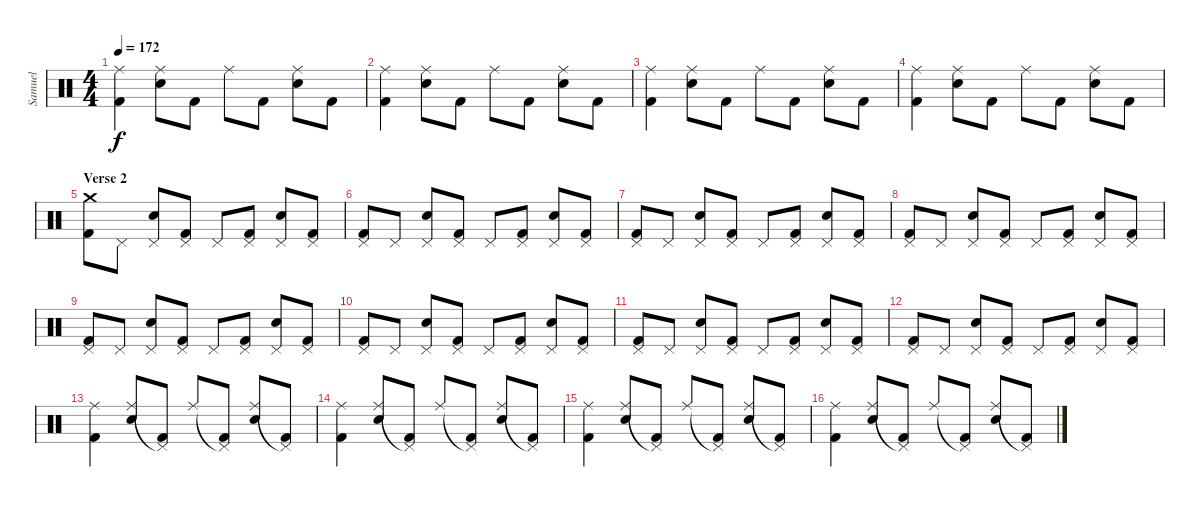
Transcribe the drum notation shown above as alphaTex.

\track ("Samuel" "Samuel") {instrument percussion}
\staff {score}
\articulation defaults
\ts (4 4)
\tempo 172
\clef neutral
\ks c
("Ride (middle)" "Kick (hit) 2").4{dy f} ("Ride (middle)" "Snare (hit) 2").8 "Kick (hit) 2".8 "Ride (middle)".8 "Kick (hit) 2".8 ("Ride (middle)" "Snare (hit) 2").8 "Kick (hit) 2".8 |
("Ride (middle)" "Kick (hit) 2").4 ("Ride (middle)" "Snare (hit) 2").8 "Kick (hit) 2".8 "Ride (middle)".8 "Kick (hit) 2".8 ("Ride (middle)" "Snare (hit) 2").8 "Kick (hit) 2".8 |
("Ride (middle)" "Kick (hit) 2").4 ("Ride (middle)" "Snare (hit) 2").8 "Kick (hit) 2".8 "Ride (middle)".8 "Kick (hit) 2".8 ("Ride (middle)" "Snare (hit) 2").8 "Kick (hit) 2".8 |
("Ride (middle)" "Kick (hit) 2").4 ("Ride (middle)" "Snare (hit) 2").8 "Kick (hit) 2".8 "Ride (middle)".8 "Kick (hit) 2".8 ("Ride (middle)" "Snare (hit) 2").8 "Kick (hit) 2".8 |
\section ("" "Verse 2")
("Crash medium (hit)" "Kick (hit) 2").8 "Pedal Hi-Hat (hit)".8 ("Pedal Hi-Hat (hit)" "Snare (hit) 2").8 ("Pedal Hi-Hat (hit)" "Kick (hit) 2").8 "Pedal Hi-Hat (hit)".8 ("Pedal Hi-Hat (hit)" "Kick (hit) 2").8 ("Pedal Hi-Hat (hit)" "Snare (hit) 2").8 ("Pedal Hi-Hat (hit)" "Kick (hit) 2").8 |
("Pedal Hi-Hat (hit)" "Kick (hit) 2").8 "Pedal Hi-Hat (hit)".8 ("Pedal Hi-Hat (hit)" "Snare (hit) 2").8 ("Pedal Hi-Hat (hit)" "Kick (hit) 2").8 "Pedal Hi-Hat (hit)".8 ("Pedal Hi-Hat (hit)" "Kick (hit) 2").8 ("Pedal Hi-Hat (hit)" "Snare (hit) 2").8 ("Pedal Hi-Hat (hit)" "Kick (hit) 2").8 |
("Pedal Hi-Hat (hit)" "Kick (hit) 2").8 "Pedal Hi-Hat (hit)".8 ("Pedal Hi-Hat (hit)" "Snare (hit) 2").8 ("Pedal Hi-Hat (hit)" "Kick (hit) 2").8 "Pedal Hi-Hat (hit)".8 ("Pedal Hi-Hat (hit)" "Kick (hit) 2").8 ("Pedal Hi-Hat (hit)" "Snare (hit) 2").8 ("Pedal Hi-Hat (hit)" "Kick (hit) 2").8 |
("Pedal Hi-Hat (hit)" "Kick (hit) 2").8 "Pedal Hi-Hat (hit)".8 ("Pedal Hi-Hat (hit)" "Snare (hit) 2").8 ("Pedal Hi-Hat (hit)" "Kick (hit) 2").8 "Pedal Hi-Hat (hit)".8 ("Pedal Hi-Hat (hit)" "Kick (hit) 2").8 ("Pedal Hi-Hat (hit)" "Snare (hit) 2").8 ("Pedal Hi-Hat (hit)" "Kick (hit) 2").8 |
("Pedal Hi-Hat (hit)" "Kick (hit) 2").8 "Pedal Hi-Hat (hit)".8 ("Pedal Hi-Hat (hit)" "Snare (hit) 2").8 ("Pedal Hi-Hat (hit)" "Kick (hit) 2").8 "Pedal Hi-Hat (hit)".8 ("Pedal Hi-Hat (hit)" "Kick (hit) 2").8 ("Pedal Hi-Hat (hit)" "Snare (hit) 2").8 ("Pedal Hi-Hat (hit)" "Kick (hit) 2").8 |
("Pedal Hi-Hat (hit)" "Kick (hit) 2").8 "Pedal Hi-Hat (hit)".8 ("Pedal Hi-Hat (hit)" "Snare (hit) 2").8 ("Pedal Hi-Hat (hit)" "Kick (hit) 2").8 "Pedal Hi-Hat (hit)".8 ("Pedal Hi-Hat (hit)" "Kick (hit) 2").8 ("Pedal Hi-Hat (hit)" "Snare (hit) 2").8 ("Pedal Hi-Hat (hit)" "Kick (hit) 2").8 |
("Pedal Hi-Hat (hit)" "Kick (hit) 2").8 "Pedal Hi-Hat (hit)".8 ("Pedal Hi-Hat (hit)" "Snare (hit) 2").8 ("Pedal Hi-Hat (hit)" "Kick (hit) 2").8 "Pedal Hi-Hat (hit)".8 ("Pedal Hi-Hat (hit)" "Kick (hit) 2").8 ("Pedal Hi-Hat (hit)" "Snare (hit) 2").8 ("Pedal Hi-Hat (hit)" "Kick (hit) 2").8 |
("Pedal Hi-Hat (hit)" "Kick (hit) 2").8 "Pedal Hi-Hat (hit)".8 ("Pedal Hi-Hat (hit)" "Snare (hit) 2").8 ("Pedal Hi-Hat (hit)" "Kick (hit) 2").8 "Pedal Hi-Hat (hit)".8 ("Pedal Hi-Hat (hit)" "Kick (hit) 2").8 ("Pedal Hi-Hat (hit)" "Snare (hit) 2").8 ("Pedal Hi-Hat (hit)" "Kick (hit) 2").8 |
("Ride (middle)" "Kick (hit) 2").4 ("Ride (middle)" "Snare (hit) 2").8 ("Pedal Hi-Hat (hit)"{t} "Kick (hit) 2").8 "Ride (middle)".8 ("Pedal Hi-Hat (hit)"{t} "Kick (hit) 2").8 ("Ride (middle)" "Snare (hit) 2").8 ("Pedal Hi-Hat (hit)"{t} "Kick (hit) 2").8 |
("Ride (middle)" "Kick (hit) 2").4 ("Ride (middle)" "Snare (hit) 2").8 ("Pedal Hi-Hat (hit)"{t} "Kick (hit) 2").8 "Ride (middle)".8 ("Pedal Hi-Hat (hit)"{t} "Kick (hit) 2").8 ("Ride (middle)" "Snare (hit) 2").8 ("Pedal Hi-Hat (hit)"{t} "Kick (hit) 2").8 |
("Ride (middle)" "Kick (hit) 2").4 ("Ride (middle)" "Snare (hit) 2").8 ("Pedal Hi-Hat (hit)"{t} "Kick (hit) 2").8 "Ride (middle)".8 ("Pedal Hi-Hat (hit)"{t} "Kick (hit) 2").8 ("Ride (middle)" "Snare (hit) 2").8 ("Pedal Hi-Hat (hit)"{t} "Kick (hit) 2").8 |
("Ride (middle)" "Kick (hit) 2").4 ("Ride (middle)" "Snare (hit) 2").8 ("Pedal Hi-Hat (hit)"{t} "Kick (hit) 2").8 "Ride (middle)".8 ("Pedal Hi-Hat (hit)"{t} "Kick (hit) 2").8 ("Ride (middle)" "Snare (hit) 2").8 ("Pedal Hi-Hat (hit)"{t} "Kick (hit) 2").8
